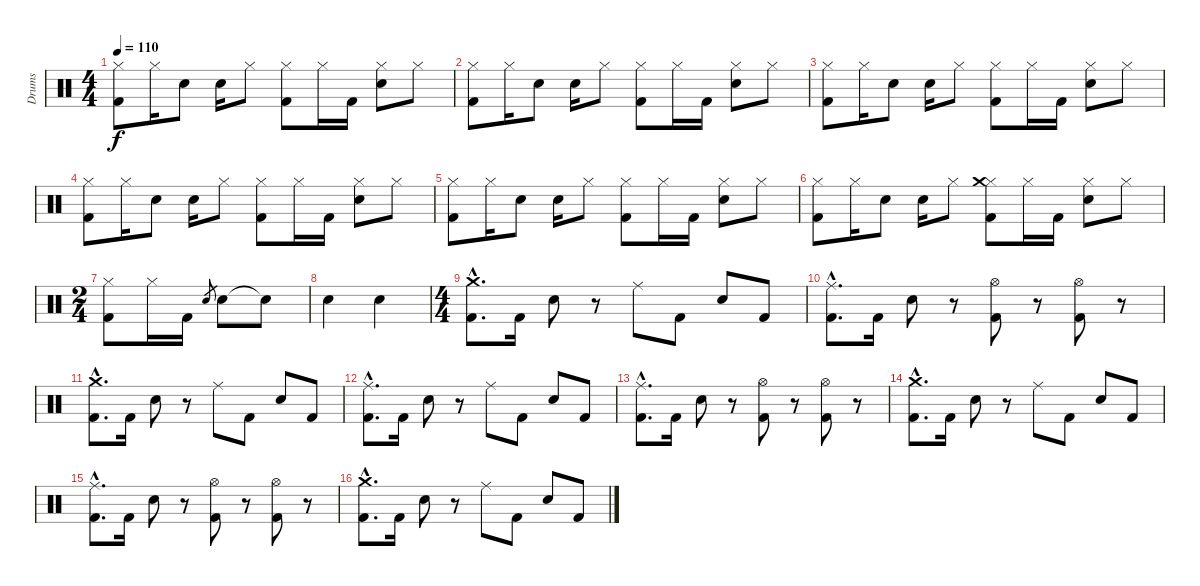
\track ("Drums" "Drums") {instrument percussion}
\staff {score}
\articulation defaults
\ts (4 4)
\tempo 110
\clef neutral
\ks c
("Hi-Hat (closed)" "Kick (hit) 2").8{dy f} "Hi-Hat (closed)".16 "Electric Snare (hit)".8 "Electric Snare (hit)".16 "Hi-Hat (closed)".8 ("Hi-Hat (closed)" "Kick (hit) 2").8 "Hi-Hat (closed)".16 "Kick (hit) 2".16 ("Hi-Hat (closed)" "Electric Snare (hit)").8 "Hi-Hat (closed)".8 |
("Hi-Hat (closed)" "Kick (hit) 2").8 "Hi-Hat (closed)".16 "Electric Snare (hit)".8 "Electric Snare (hit)".16 "Hi-Hat (closed)".8 ("Hi-Hat (closed)" "Kick (hit) 2").8 "Hi-Hat (closed)".16 "Kick (hit) 2".16 ("Hi-Hat (closed)" "Electric Snare (hit)").8 "Hi-Hat (closed)".8 |
("Hi-Hat (closed)" "Kick (hit) 2").8 "Hi-Hat (closed)".16 "Electric Snare (hit)".8 "Electric Snare (hit)".16 "Hi-Hat (closed)".8 ("Hi-Hat (closed)" "Kick (hit) 2").8 "Hi-Hat (closed)".16 "Kick (hit) 2".16 ("Hi-Hat (closed)" "Electric Snare (hit)").8 "Hi-Hat (closed)".8 |
("Hi-Hat (closed)" "Kick (hit) 2").8 "Hi-Hat (closed)".16 "Electric Snare (hit)".8 "Electric Snare (hit)".16 "Hi-Hat (closed)".8 ("Hi-Hat (closed)" "Kick (hit) 2").8 "Hi-Hat (closed)".16 "Kick (hit) 2".16 ("Hi-Hat (closed)" "Electric Snare (hit)").8 "Hi-Hat (closed)".8 |
("Hi-Hat (closed)" "Kick (hit) 2").8 "Hi-Hat (closed)".16 "Electric Snare (hit)".8 "Electric Snare (hit)".16 "Hi-Hat (closed)".8 ("Hi-Hat (closed)" "Kick (hit) 2").8 "Hi-Hat (closed)".16 "Kick (hit) 2".16 ("Hi-Hat (closed)" "Electric Snare (hit)").8 "Hi-Hat (closed)".8 |
("Hi-Hat (closed)" "Kick (hit) 2").8 "Hi-Hat (closed)".16 "Electric Snare (hit)".8 "Electric Snare (hit)".16 "Hi-Hat (closed)".8 ("Hi-Hat (closed)" "Kick (hit) 2" "Crash medium (hit)").8 "Hi-Hat (closed)".16 "Kick (hit) 2".16 ("Hi-Hat (closed)" "Electric Snare (hit)").8 "Hi-Hat (closed)".8 |
\ts (2 4)
("Hi-Hat (closed)" "Kick (hit) 2").8 "Hi-Hat (closed)".16 "Kick (hit) 2".16 "Electric Snare (hit)".8{gr} "Electric Snare (hit)".8 "Snare (hit)"{t}.8 |
"Electric Snare (hit)".4 "Electric Snare (hit)".4 |
\ts (4 4)
("Crash medium (hit)"{hac} "Kick (hit) 2"{hac}).8{d} "Kick (hit) 2".16 "Electric Snare (hit)".8 r.8 "Ride (middle)".8 "Kick (hit) 2".8 "Electric Snare (hit)".8 "Kick (hit) 2".8 |
("Ride (middle)"{hac} "Kick (hit) 2"{hac}).8{d} "Kick (hit) 2".16 "Electric Snare (hit)".8 r.8 ("Hi-Hat (open)" "Kick (hit) 2").8 r.8 ("Hi-Hat (open)" "Kick (hit) 2").8 r.8 |
("Crash medium (hit)"{hac} "Kick (hit) 2"{hac}).8{d} "Kick (hit) 2".16 "Electric Snare (hit)".8 r.8 "Ride (middle)".8 "Kick (hit) 2".8 "Electric Snare (hit)".8 "Kick (hit) 2".8 |
("Ride (middle)"{hac} "Kick (hit) 2"{hac}).8{d} "Kick (hit) 2".16 "Electric Snare (hit)".8 r.8 "Ride (middle)".8 "Kick (hit) 2".8 "Electric Snare (hit)".8 "Kick (hit) 2".8 |
("Ride (middle)"{hac} "Kick (hit) 2"{hac}).8{d} "Kick (hit) 2".16 "Electric Snare (hit)".8 r.8 ("Hi-Hat (open)" "Kick (hit) 2").8 r.8 ("Hi-Hat (open)" "Kick (hit) 2").8 r.8 |
("Crash medium (hit)"{hac} "Kick (hit) 2"{hac}).8{d} "Kick (hit) 2".16 "Electric Snare (hit)".8 r.8 "Ride (middle)".8 "Kick (hit) 2".8 "Electric Snare (hit)".8 "Kick (hit) 2".8 |
("Ride (middle)"{hac} "Kick (hit) 2"{hac}).8{d} "Kick (hit) 2".16 "Electric Snare (hit)".8 r.8 ("Hi-Hat (open)" "Kick (hit) 2").8 r.8 ("Hi-Hat (open)" "Kick (hit) 2").8 r.8 |
("Crash medium (hit)"{hac} "Kick (hit) 2"{hac}).8{d} "Kick (hit) 2".16 "Electric Snare (hit)".8 r.8 "Ride (middle)".8 "Kick (hit) 2".8 "Electric Snare (hit)".8 "Kick (hit) 2".8
